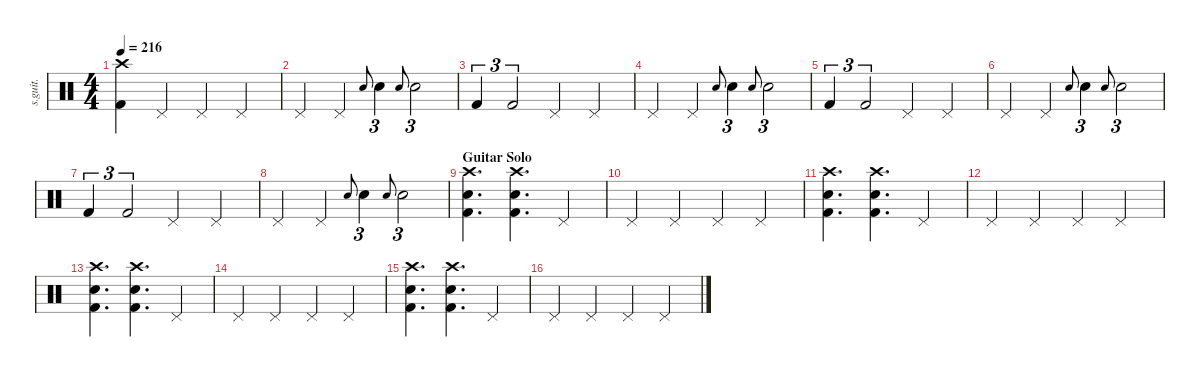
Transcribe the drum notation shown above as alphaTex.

\defaultSystemsLayout 4
\hideDynamics
\bracketExtendMode nobrackets
\track ("Jesus Bonehead | Drums" "s.guit.") {instrument percussion}
\staff {score}
\articulation defaults
\ts (4 4)
\tempo 216
\clef neutral
\ks c
("Crash high (hit)" "Kick (hit) 2").4{dy f} "Pedal Hi-Hat (hit)".4 "Pedal Hi-Hat (hit)".4 "Pedal Hi-Hat (hit)".4 |
"Pedal Hi-Hat (hit)".4 "Pedal Hi-Hat (hit)".4 "Snare (hit) 2".8{gr onbeat} "Snare (hit) 2".4{tu (3 2)} "Snare (hit) 2".8{gr onbeat} "Snare (hit) 2".2{tu (3 2)} |
"Kick (hit) 2".4{tu (3 2)} "Kick (hit) 2".2{tu (3 2)} "Pedal Hi-Hat (hit)".4 "Pedal Hi-Hat (hit)".4 |
"Pedal Hi-Hat (hit)".4 "Pedal Hi-Hat (hit)".4 "Snare (hit) 2".8{gr onbeat} "Snare (hit) 2".4{tu (3 2)} "Snare (hit) 2".8{gr onbeat} "Snare (hit) 2".2{tu (3 2)} |
"Kick (hit) 2".4{tu (3 2)} "Kick (hit) 2".2{tu (3 2)} "Pedal Hi-Hat (hit)".4 "Pedal Hi-Hat (hit)".4 |
"Pedal Hi-Hat (hit)".4 "Pedal Hi-Hat (hit)".4 "Snare (hit) 2".8{gr onbeat} "Snare (hit) 2".4{tu (3 2)} "Snare (hit) 2".8{gr onbeat} "Snare (hit) 2".2{tu (3 2)} |
"Kick (hit) 2".4{tu (3 2)} "Kick (hit) 2".2{tu (3 2)} "Pedal Hi-Hat (hit)".4 "Pedal Hi-Hat (hit)".4 |
"Pedal Hi-Hat (hit)".4 "Pedal Hi-Hat (hit)".4 "Snare (hit) 2".8{gr onbeat} "Snare (hit) 2".4{tu (3 2)} "Snare (hit) 2".8{gr onbeat} "Snare (hit) 2".2{tu (3 2)} |
\section ("" "Guitar Solo")
("Crash high (hit)" "Snare (hit) 2" "Kick (hit) 2").4{d} ("Crash high (hit)" "Snare (hit) 2" "Kick (hit) 2").4{d} "Pedal Hi-Hat (hit)".4 |
"Pedal Hi-Hat (hit)".4 "Pedal Hi-Hat (hit)".4 "Pedal Hi-Hat (hit)".4 "Pedal Hi-Hat (hit)".4 |
("Crash high (hit)" "Snare (hit) 2" "Kick (hit) 2").4{d} ("Crash high (hit)" "Snare (hit) 2" "Kick (hit) 2").4{d} "Pedal Hi-Hat (hit)".4 |
"Pedal Hi-Hat (hit)".4 "Pedal Hi-Hat (hit)".4 "Pedal Hi-Hat (hit)".4 "Pedal Hi-Hat (hit)".4 |
("Crash high (hit)" "Snare (hit) 2" "Kick (hit) 2").4{d} ("Crash high (hit)" "Snare (hit) 2" "Kick (hit) 2").4{d} "Pedal Hi-Hat (hit)".4 |
"Pedal Hi-Hat (hit)".4 "Pedal Hi-Hat (hit)".4 "Pedal Hi-Hat (hit)".4 "Pedal Hi-Hat (hit)".4 |
("Crash high (hit)" "Snare (hit) 2" "Kick (hit) 2").4{d} ("Crash high (hit)" "Snare (hit) 2" "Kick (hit) 2").4{d} "Pedal Hi-Hat (hit)".4 |
"Pedal Hi-Hat (hit)".4 "Pedal Hi-Hat (hit)".4 "Pedal Hi-Hat (hit)".4 "Pedal Hi-Hat (hit)".4
